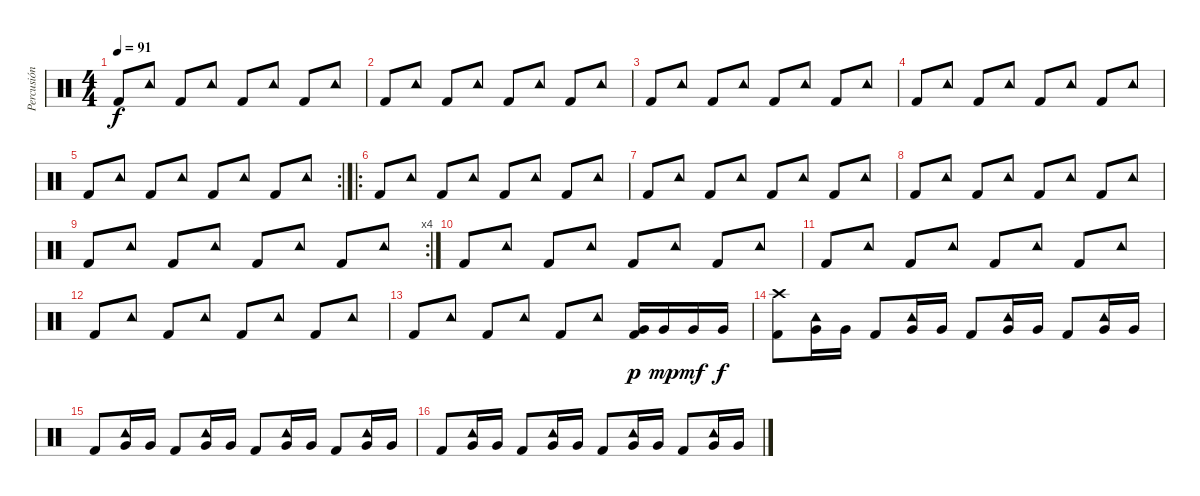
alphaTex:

\track ("Percusión" "Percusión") {instrument percussion}
\staff {score}
\articulation defaults
\ts (4 4)
\tempo 91
\clef neutral
\ks c "Kick (hit) 2".8{dy f} "Tambourine (hit)".8 "Kick (hit) 2".8 "Tambourine (hit)".8 "Kick (hit) 2".8 "Tambourine (hit)".8 "Kick (hit) 2".8 "Tambourine (hit)".8
|
"Kick (hit) 2".8 "Tambourine (hit)".8 "Kick (hit) 2".8 "Tambourine (hit)".8 "Kick (hit) 2".8 "Tambourine (hit)".8 "Kick (hit) 2".8 "Tambourine (hit)".8 |
"Kick (hit) 2".8 "Tambourine (hit)".8 "Kick (hit) 2".8 "Tambourine (hit)".8 "Kick (hit) 2".8 "Tambourine (hit)".8 "Kick (hit) 2".8 "Tambourine (hit)".8 |
"Kick (hit) 2".8 "Tambourine (hit)".8 "Kick (hit) 2".8 "Tambourine (hit)".8 "Kick (hit) 2".8 "Tambourine (hit)".8 "Kick (hit) 2".8 "Tambourine (hit)".8 |
\rc 2 "Kick (hit) 2".8 "Tambourine (hit)".8 "Kick (hit) 2".8 "Tambourine (hit)".8 "Kick (hit) 2".8 "Tambourine (hit)".8 "Kick (hit) 2".8 "Tambourine (hit)".8
|
\ro "Kick (hit) 2".8 "Tambourine (hit)".8 "Kick (hit) 2".8 "Tambourine (hit)".8 "Kick (hit) 2".8 "Tambourine (hit)".8 "Kick (hit) 2".8 "Tambourine (hit)".8
|
"Kick (hit) 2".8 "Tambourine (hit)".8 "Kick (hit) 2".8 "Tambourine (hit)".8 "Kick (hit) 2".8 "Tambourine (hit)".8 "Kick (hit) 2".8 "Tambourine (hit)".8 |
"Kick (hit) 2".8 "Tambourine (hit)".8 "Kick (hit) 2".8 "Tambourine (hit)".8 "Kick (hit) 2".8 "Tambourine (hit)".8 "Kick (hit) 2".8 "Tambourine (hit)".8 |
\rc 4 "Kick (hit) 2".8 "Tambourine (hit)".8 "Kick (hit) 2".8 "Tambourine (hit)".8 "Kick (hit) 2".8 "Tambourine (hit)".8 "Kick (hit) 2".8 "Tambourine (hit)".8
|
"Kick (hit) 2".8 "Tambourine (hit)".8 "Kick (hit) 2".8 "Tambourine (hit)".8 "Kick (hit) 2".8 "Tambourine (hit)".8 "Kick (hit) 2".8 "Tambourine (hit)".8 |
"Kick (hit) 2".8 "Tambourine (hit)".8 "Kick (hit) 2".8 "Tambourine (hit)".8 "Kick (hit) 2".8 "Tambourine (hit)".8 "Kick (hit) 2".8 "Tambourine (hit)".8 |
"Kick (hit) 2".8 "Tambourine (hit)".8 "Kick (hit) 2".8 "Tambourine (hit)".8 "Kick (hit) 2".8 "Tambourine (hit)".8 "Kick (hit) 2".8 "Tambourine (hit)".8 |
"Kick (hit) 2".8 "Tambourine (hit)".8 "Kick (hit) 2".8 "Tambourine (hit)".8 "Kick (hit) 2".8 "Tambourine (hit)".8 ("Very Low Tom (hit)" "Kick (hit) 2").16{dy p} "Very Low Tom (hit)".16{dy mp} "Very Low Tom (hit)".16{dy mf} "Very Low Tom (hit)".16{dy f} |
("Crash high (hit)" "Kick (hit) 2").8 ("Tambourine (hit)" "Very Low Tom (hit)").16 "Very Low Tom (hit)".16 "Kick (hit) 2".8 ("Tambourine (hit)" "Very Low Tom (hit)").16 "Very Low Tom (hit)".16 "Kick (hit) 2".8 ("Tambourine (hit)" "Very Low Tom (hit)").16 "Very Low Tom (hit)".16 "Kick (hit) 2".8 ("Tambourine (hit)" "Very Low Tom (hit)").16 "Very Low Tom (hit)".16 |
"Kick (hit) 2".8 ("Tambourine (hit)" "Very Low Tom (hit)").16 "Very Low Tom (hit)".16 "Kick (hit) 2".8 ("Tambourine (hit)" "Very Low Tom (hit)").16 "Very Low Tom (hit)".16 "Kick (hit) 2".8 ("Tambourine (hit)" "Very Low Tom (hit)").16 "Very Low Tom (hit)".16 "Kick (hit) 2".8 ("Tambourine (hit)" "Very Low Tom (hit)").16 "Very Low Tom (hit)".16 |
"Kick (hit) 2".8 ("Tambourine (hit)" "Very Low Tom (hit)").16 "Very Low Tom (hit)".16 "Kick (hit) 2".8 ("Tambourine (hit)" "Very Low Tom (hit)").16 "Very Low Tom (hit)".16 "Kick (hit) 2".8 ("Tambourine (hit)" "Very Low Tom (hit)").16 "Very Low Tom (hit)".16 "Kick (hit) 2".8 ("Tambourine (hit)" "Very Low Tom (hit)").16 "Very Low Tom (hit)".16
